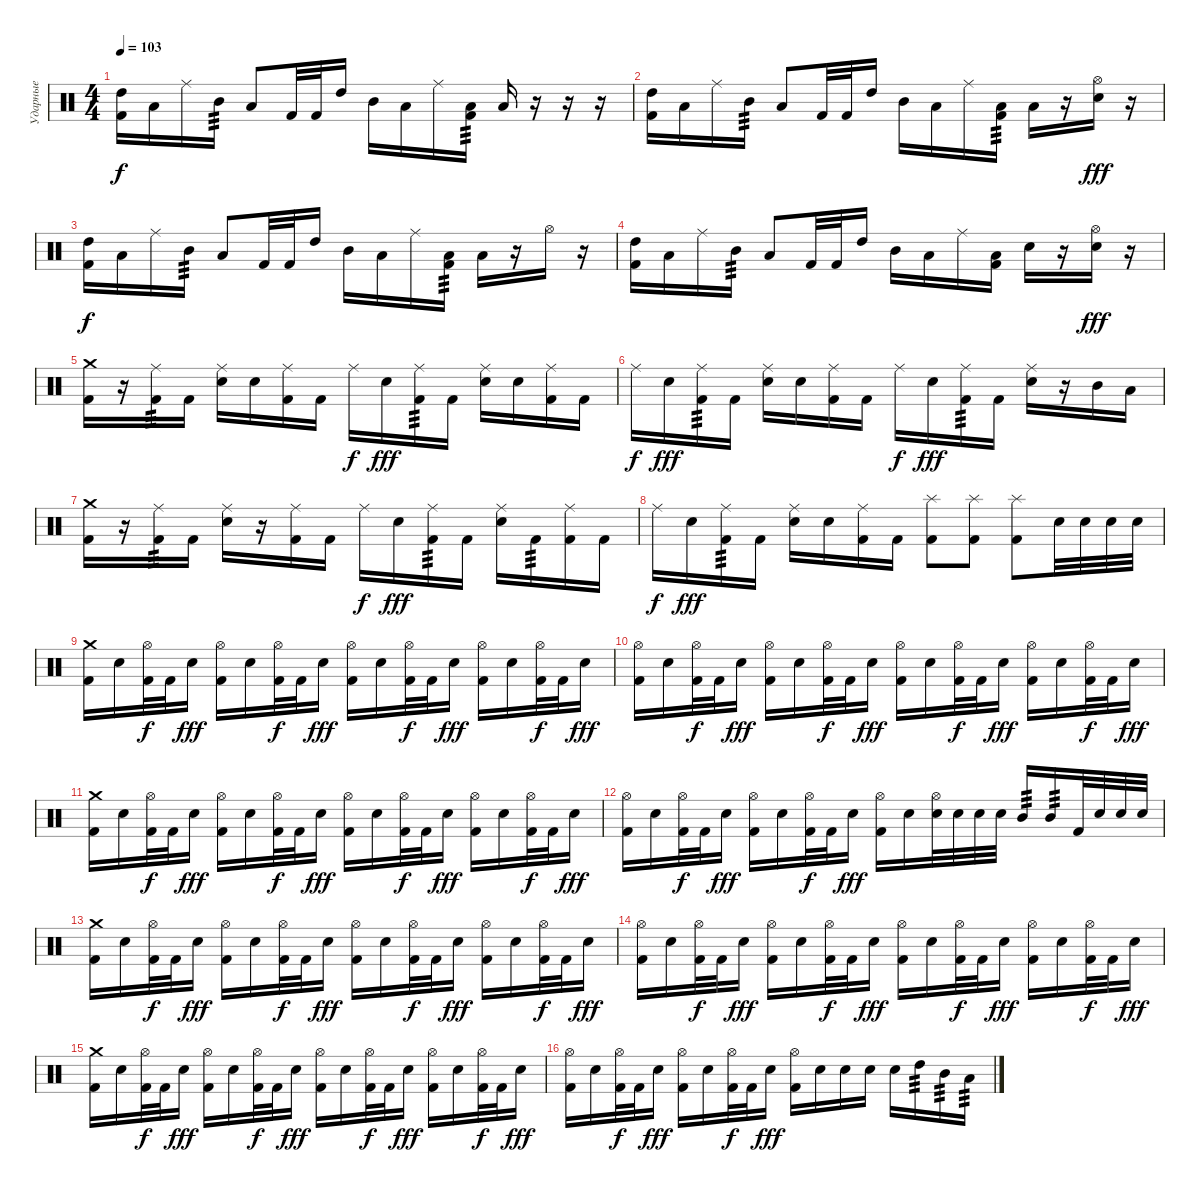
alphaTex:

\track ("Ударные" "Ударные") {instrument percussion}
\staff {score}
\articulation defaults
\ts (4 4)
\tempo 103
\clef neutral
\ks c
("High Tom (hit)" "Kick (hit) 2").16{dy f} "Low Tom (hit)".16 "Ride (middle)".16 "Mid Tom (hit)".16{tp 3} "Low Floor Tom (hit)".8 "Kick (hit) 2".32 "Kick (hit) 2".32 "High Tom (hit)".16 "Mid Tom (hit)".16 "Low Floor Tom (hit)".16 "Ride (middle)".16 ("Low Tom (hit)" "Kick (hit) 2").16{tp 3} "Low Floor Tom (hit)".16 r.16 r.16 r.16 |
("High Tom (hit)" "Kick (hit) 2").16 "Low Tom (hit)".16 "Ride (middle)".16 "Mid Tom (hit)".16{tp 3} "Low Floor Tom (hit)".8 "Kick (hit) 2".32 "Kick (hit) 2".32 "High Tom (hit)".16 "Mid Tom (hit)".16 "Low Floor Tom (hit)".16 "Ride (middle)".16 ("Low Tom (hit)" "Kick (hit) 2").16{tp 3} "Low Floor Tom (hit)".16 r.16 ("Snare (hit) 2" "Hi-Hat (open)").16{dy fff} r.16 |
("High Tom (hit)" "Kick (hit) 2").16{dy f} "Low Tom (hit)".16 "Ride (middle)".16 "Mid Tom (hit)".16{tp 3} "Low Floor Tom (hit)".8 "Kick (hit) 2".32 "Kick (hit) 2".32 "High Tom (hit)".16 "Mid Tom (hit)".16 "Low Floor Tom (hit)".16 "Ride (middle)".16 ("Low Tom (hit)" "Kick (hit) 2").16{tp 3} "Low Floor Tom (hit)".16 r.16 "Hi-Hat (open)".16 r.16 |
("High Tom (hit)" "Kick (hit) 2").16 "Low Tom (hit)".16 "Ride (middle)".16 "Mid Tom (hit)".16{tp 3} "Low Floor Tom (hit)".8 "Kick (hit) 2".32 "Kick (hit) 2".32 "High Tom (hit)".16 "Mid Tom (hit)".16 "Low Floor Tom (hit)".16 "Ride (middle)".16 ("Low Tom (hit)" "Kick (hit) 2").16 "Snare (hit) 2".16 r.16 ("Snare (hit) 2" "Hi-Hat (open)").16{dy fff} r.16 |
("Crash medium (hit)" "Kick (hit) 2").16 r.16 ("Ride (middle)" "Kick (hit) 2").16{tp 3} "Kick (hit) 2".16 ("Ride (middle)" "Snare (hit) 2").16 "Snare (hit) 2".16 ("Ride (middle)" "Kick (hit) 2").16 "Kick (hit) 2".16 "Ride (middle)".16{dy f} "Snare (hit) 2".16{dy fff} ("Ride (middle)" "Kick (hit) 2").16{tp 3} "Kick (hit) 2".16 ("Ride (middle)" "Snare (hit) 2").16 "Snare (hit) 2".16 ("Ride (middle)" "Kick (hit) 2").16 "Kick (hit) 2".16 |
"Ride (middle)".16{dy f} "Snare (hit) 2".16{dy fff} ("Ride (middle)" "Kick (hit) 2").16{tp 3} "Kick (hit) 2".16 ("Ride (middle)" "Snare (hit) 2").16 "Snare (hit) 2".16 ("Ride (middle)" "Kick (hit) 2").16 "Kick (hit) 2".16 "Ride (middle)".16{dy f} "Snare (hit) 2".16{dy fff} ("Ride (middle)" "Kick (hit) 2").16{tp 3} "Kick (hit) 2".16 ("Ride (middle)" "Snare (hit) 2").16 r.16 "Mid Tom (hit)".16 "Low Tom (hit)".16 |
("Crash medium (hit)" "Kick (hit) 2").16 r.16 ("Ride (middle)" "Kick (hit) 2").16{tp 3} "Kick (hit) 2".16 ("Ride (middle)" "Snare (hit) 2").16 r.16 ("Ride (middle)" "Kick (hit) 2").16 "Kick (hit) 2".16 "Ride (middle)".16{dy f} "Snare (hit) 2".16{dy fff} ("Ride (middle)" "Kick (hit) 2").16{tp 3} "Kick (hit) 2".16 ("Ride (middle)" "Snare (hit) 2").16 "Kick (hit) 2".16{tp 3} ("Ride (middle)" "Kick (hit) 2").16 "Kick (hit) 2".16 |
"Ride (middle)".16{dy f} "Snare (hit) 2".16{dy fff} ("Ride (middle)" "Kick (hit) 2").16{tp 3} "Kick (hit) 2".16 ("Ride (middle)" "Snare (hit) 2").16 "Snare (hit) 2".16 ("Ride (middle)" "Kick (hit) 2").16 "Kick (hit) 2".16 ("Splash (hit)" "Kick (hit) 2").8 ("Splash (hit)" "Kick (hit) 2").8 ("Splash (hit)" "Kick (hit) 2").8 "Snare (hit) 2".32 "Snare (hit) 2".32 "Snare (hit) 2".32 "Snare (hit) 2".32 |
("Crash medium (hit)" "Kick (hit) 2").16 "Snare (hit) 2".16 ("Hi-Hat (open)" "Kick (hit) 2").32{dy f} "Kick (hit) 2".32 "Snare (hit) 2".16{dy fff} ("Hi-Hat (open)" "Kick (hit) 2").16 "Snare (hit) 2".16 ("Hi-Hat (open)" "Kick (hit) 2").32{dy f} "Kick (hit) 2".32 "Snare (hit) 2".16{dy fff} ("Hi-Hat (open)" "Kick (hit) 2").16 "Snare (hit) 2".16 ("Hi-Hat (open)" "Kick (hit) 2").32{dy f} "Kick (hit) 2".32 "Snare (hit) 2".16{dy fff} ("Hi-Hat (open)" "Kick (hit) 2").16 "Snare (hit) 2".16 ("Hi-Hat (open)" "Kick (hit) 2").32{dy f} "Kick (hit) 2".32 "Snare (hit) 2".16{dy fff} |
("Hi-Hat (open)" "Kick (hit) 2").16 "Snare (hit) 2".16 ("Hi-Hat (open)" "Kick (hit) 2").32{dy f} "Kick (hit) 2".32 "Snare (hit) 2".16{dy fff} ("Hi-Hat (open)" "Kick (hit) 2").16 "Snare (hit) 2".16 ("Hi-Hat (open)" "Kick (hit) 2").32{dy f} "Kick (hit) 2".32 "Snare (hit) 2".16{dy fff} ("Hi-Hat (open)" "Kick (hit) 2").16 "Snare (hit) 2".16 ("Hi-Hat (open)" "Kick (hit) 2").32{dy f} "Kick (hit) 2".32 "Snare (hit) 2".16{dy fff} ("Hi-Hat (open)" "Kick (hit) 2").16 "Snare (hit) 2".16 ("Hi-Hat (open)" "Kick (hit) 2").32{dy f} "Kick (hit) 2".32 "Snare (hit) 2".16{dy fff} |
("Crash medium (hit)" "Kick (hit) 2").16 "Snare (hit) 2".16 ("Hi-Hat (open)" "Kick (hit) 2").32{dy f} "Kick (hit) 2".32 "Snare (hit) 2".16{dy fff} ("Hi-Hat (open)" "Kick (hit) 2").16 "Snare (hit) 2".16 ("Hi-Hat (open)" "Kick (hit) 2").32{dy f} "Kick (hit) 2".32 "Snare (hit) 2".16{dy fff} ("Hi-Hat (open)" "Kick (hit) 2").16 "Snare (hit) 2".16 ("Hi-Hat (open)" "Kick (hit) 2").32{dy f} "Kick (hit) 2".32 "Snare (hit) 2".16{dy fff} ("Hi-Hat (open)" "Kick (hit) 2").16 "Snare (hit) 2".16 ("Hi-Hat (open)" "Kick (hit) 2").32{dy f} "Kick (hit) 2".32 "Snare (hit) 2".16{dy fff} |
("Hi-Hat (open)" "Kick (hit) 2").16 "Snare (hit) 2".16 ("Hi-Hat (open)" "Kick (hit) 2").32{dy f} "Kick (hit) 2".32 "Snare (hit) 2".16{dy fff} ("Hi-Hat (open)" "Kick (hit) 2").16 "Snare (hit) 2".16 ("Hi-Hat (open)" "Kick (hit) 2").32{dy f} "Kick (hit) 2".32 "Snare (hit) 2".16{dy fff} ("Hi-Hat (open)" "Kick (hit) 2").16 "Snare (hit) 2".16 ("Hi-Hat (open)" "Snare (hit) 2").32 "Snare (hit) 2".32 "Snare (hit) 2".32 "Snare (hit) 2".32 "Mid Tom (hit)".16{tp 3} "Mid Tom (hit)".16{tp 3} "Kick (hit) 2".32 "Snare (hit) 2".32 "Snare (hit) 2".32 "Snare (hit) 2".32 |
("Crash medium (hit)" "Kick (hit) 2").16 "Snare (hit) 2".16 ("Hi-Hat (open)" "Kick (hit) 2").32{dy f} "Kick (hit) 2".32 "Snare (hit) 2".16{dy fff} ("Hi-Hat (open)" "Kick (hit) 2").16 "Snare (hit) 2".16 ("Hi-Hat (open)" "Kick (hit) 2").32{dy f} "Kick (hit) 2".32 "Snare (hit) 2".16{dy fff} ("Hi-Hat (open)" "Kick (hit) 2").16 "Snare (hit) 2".16 ("Hi-Hat (open)" "Kick (hit) 2").32{dy f} "Kick (hit) 2".32 "Snare (hit) 2".16{dy fff} ("Hi-Hat (open)" "Kick (hit) 2").16 "Snare (hit) 2".16 ("Hi-Hat (open)" "Kick (hit) 2").32{dy f} "Kick (hit) 2".32 "Snare (hit) 2".16{dy fff} |
("Hi-Hat (open)" "Kick (hit) 2").16 "Snare (hit) 2".16 ("Hi-Hat (open)" "Kick (hit) 2").32{dy f} "Kick (hit) 2".32 "Snare (hit) 2".16{dy fff} ("Hi-Hat (open)" "Kick (hit) 2").16 "Snare (hit) 2".16 ("Hi-Hat (open)" "Kick (hit) 2").32{dy f} "Kick (hit) 2".32 "Snare (hit) 2".16{dy fff} ("Hi-Hat (open)" "Kick (hit) 2").16 "Snare (hit) 2".16 ("Hi-Hat (open)" "Kick (hit) 2").32{dy f} "Kick (hit) 2".32 "Snare (hit) 2".16{dy fff} ("Hi-Hat (open)" "Kick (hit) 2").16 "Snare (hit) 2".16 ("Hi-Hat (open)" "Kick (hit) 2").32{dy f} "Kick (hit) 2".32 "Snare (hit) 2".16{dy fff} |
("Crash medium (hit)" "Kick (hit) 2").16 "Snare (hit) 2".16 ("Hi-Hat (open)" "Kick (hit) 2").32{dy f} "Kick (hit) 2".32 "Snare (hit) 2".16{dy fff} ("Hi-Hat (open)" "Kick (hit) 2").16 "Snare (hit) 2".16 ("Hi-Hat (open)" "Kick (hit) 2").32{dy f} "Kick (hit) 2".32 "Snare (hit) 2".16{dy fff} ("Hi-Hat (open)" "Kick (hit) 2").16 "Snare (hit) 2".16 ("Hi-Hat (open)" "Kick (hit) 2").32{dy f} "Kick (hit) 2".32 "Snare (hit) 2".16{dy fff} ("Hi-Hat (open)" "Kick (hit) 2").16 "Snare (hit) 2".16 ("Hi-Hat (open)" "Kick (hit) 2").32{dy f} "Kick (hit) 2".32 "Snare (hit) 2".16{dy fff} |
("Hi-Hat (open)" "Kick (hit) 2").16 "Snare (hit) 2".16 ("Hi-Hat (open)" "Kick (hit) 2").32{dy f} "Kick (hit) 2".32 "Snare (hit) 2".16{dy fff} ("Hi-Hat (open)" "Kick (hit) 2").16 "Snare (hit) 2".16 ("Hi-Hat (open)" "Kick (hit) 2").32{dy f} "Kick (hit) 2".32 "Snare (hit) 2".16{dy fff} ("Hi-Hat (open)" "Kick (hit) 2").16 "Snare (hit) 2".16 "Snare (hit) 2".16 "Snare (hit) 2".16 "Snare (hit) 2".16 "High Tom (hit)".16{tp 3} "Mid Tom (hit)".16{tp 3} "Low Tom (hit)".16{tp 3}
